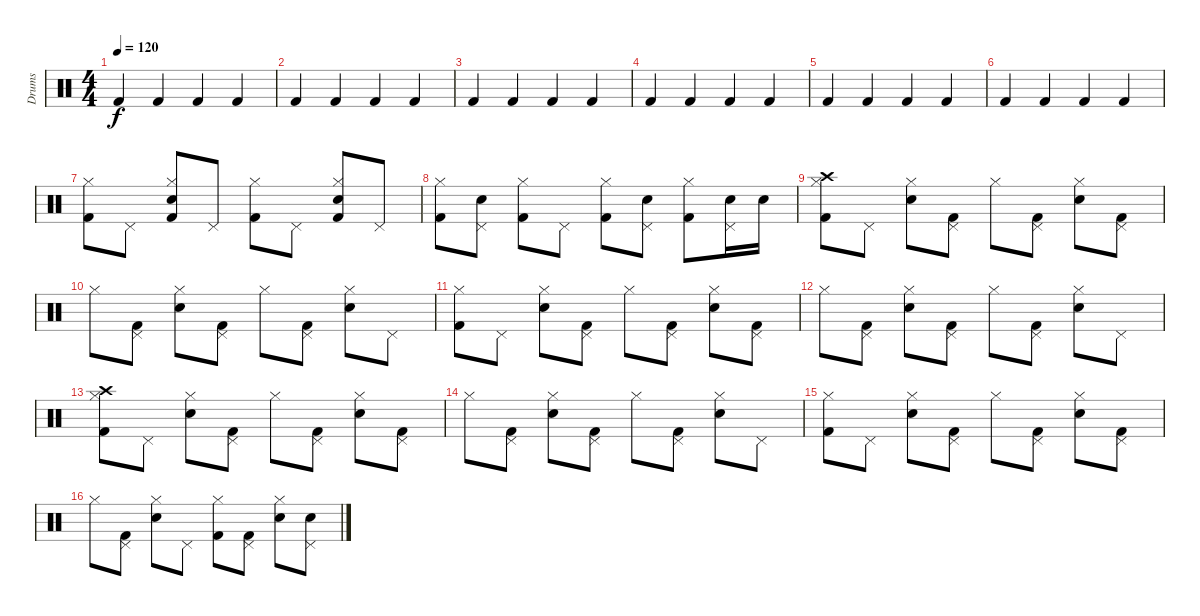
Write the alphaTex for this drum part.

\track ("Drums" "Drums") {instrument percussion}
\staff {score}
\articulation defaults
\ts (4 4)
\tempo 120
\clef neutral
\ks c "Kick (hit) 2".4{dy f} "Kick (hit) 2".4 "Kick (hit) 2".4 "Kick (hit) 2".4
|
"Kick (hit) 2".4 "Kick (hit) 2".4 "Kick (hit) 2".4 "Kick (hit) 2".4 |
"Kick (hit) 2".4 "Kick (hit) 2".4 "Kick (hit) 2".4 "Kick (hit) 2".4 |
"Kick (hit) 2".4 "Kick (hit) 2".4 "Kick (hit) 2".4 "Kick (hit) 2".4 |
"Kick (hit) 2".4 "Kick (hit) 2".4 "Kick (hit) 2".4 "Kick (hit) 2".4 |
"Kick (hit) 2".4 "Kick (hit) 2".4 "Kick (hit) 2".4 "Kick (hit) 2".4 |
("Kick (hit) 2" "Hi-Hat (closed)").8 "Pedal Hi-Hat (hit)".8 ("Kick (hit) 2" "Electric Snare (hit)" "Hi-Hat (closed)").8 "Pedal Hi-Hat (hit)".8 ("Kick (hit) 2" "Hi-Hat (closed)").8 "Pedal Hi-Hat (hit)".8 ("Kick (hit) 2" "Electric Snare (hit)" "Hi-Hat (closed)").8 "Pedal Hi-Hat (hit)".8 |
("Kick (hit) 2" "Hi-Hat (closed)").8 ("Electric Snare (hit)" "Pedal Hi-Hat (hit)").8 ("Kick (hit) 2" "Hi-Hat (closed)").8 "Pedal Hi-Hat (hit)".8 ("Kick (hit) 2" "Hi-Hat (closed)").8 ("Electric Snare (hit)" "Pedal Hi-Hat (hit)").8 ("Kick (hit) 2" "Hi-Hat (closed)").8 ("Electric Snare (hit)" "Pedal Hi-Hat (hit)").16 "Electric Snare (hit)".16 |
("Kick (hit) 2" "Hi-Hat (closed)" "Crash high (hit)").8 "Pedal Hi-Hat (hit)".8 ("Electric Snare (hit)" "Hi-Hat (closed)").8 ("Kick (hit) 2" "Pedal Hi-Hat (hit)").8 "Hi-Hat (closed)".8 ("Kick (hit) 2" "Pedal Hi-Hat (hit)").8 ("Electric Snare (hit)" "Hi-Hat (closed)").8 ("Kick (hit) 2" "Pedal Hi-Hat (hit)").8 |
"Hi-Hat (closed)".8 ("Kick (hit) 2" "Pedal Hi-Hat (hit)").8 ("Electric Snare (hit)" "Hi-Hat (closed)").8 ("Kick (hit) 2" "Pedal Hi-Hat (hit)").8 "Hi-Hat (closed)".8 ("Kick (hit) 2" "Pedal Hi-Hat (hit)").8 ("Electric Snare (hit)" "Hi-Hat (closed)").8 "Pedal Hi-Hat (hit)".8 |
("Kick (hit) 2" "Hi-Hat (closed)").8 "Pedal Hi-Hat (hit)".8 ("Electric Snare (hit)" "Hi-Hat (closed)").8 ("Kick (hit) 2" "Pedal Hi-Hat (hit)").8 "Hi-Hat (closed)".8 ("Kick (hit) 2" "Pedal Hi-Hat (hit)").8 ("Electric Snare (hit)" "Hi-Hat (closed)").8 ("Kick (hit) 2" "Pedal Hi-Hat (hit)").8 |
"Hi-Hat (closed)".8 ("Kick (hit) 2" "Pedal Hi-Hat (hit)").8 ("Electric Snare (hit)" "Hi-Hat (closed)").8 ("Kick (hit) 2" "Pedal Hi-Hat (hit)").8 "Hi-Hat (closed)".8 ("Kick (hit) 2" "Pedal Hi-Hat (hit)").8 ("Electric Snare (hit)" "Hi-Hat (closed)").8 "Pedal Hi-Hat (hit)".8 |
("Kick (hit) 2" "Hi-Hat (closed)" "Crash high (hit)").8 "Pedal Hi-Hat (hit)".8 ("Electric Snare (hit)" "Hi-Hat (closed)").8 ("Kick (hit) 2" "Pedal Hi-Hat (hit)").8 "Hi-Hat (closed)".8 ("Kick (hit) 2" "Pedal Hi-Hat (hit)").8 ("Electric Snare (hit)" "Hi-Hat (closed)").8 ("Kick (hit) 2" "Pedal Hi-Hat (hit)").8 |
"Hi-Hat (closed)".8 ("Kick (hit) 2" "Pedal Hi-Hat (hit)").8 ("Electric Snare (hit)" "Hi-Hat (closed)").8 ("Kick (hit) 2" "Pedal Hi-Hat (hit)").8 "Hi-Hat (closed)".8 ("Kick (hit) 2" "Pedal Hi-Hat (hit)").8 ("Electric Snare (hit)" "Hi-Hat (closed)").8 "Pedal Hi-Hat (hit)".8 |
("Kick (hit) 2" "Hi-Hat (closed)").8 "Pedal Hi-Hat (hit)".8 ("Electric Snare (hit)" "Hi-Hat (closed)").8 ("Kick (hit) 2" "Pedal Hi-Hat (hit)").8 "Hi-Hat (closed)".8 ("Kick (hit) 2" "Pedal Hi-Hat (hit)").8 ("Electric Snare (hit)" "Hi-Hat (closed)").8 ("Kick (hit) 2" "Pedal Hi-Hat (hit)").8 |
"Hi-Hat (closed)".8 ("Kick (hit) 2" "Pedal Hi-Hat (hit)").8 ("Electric Snare (hit)" "Hi-Hat (closed)").8 "Pedal Hi-Hat (hit)".8 ("Kick (hit) 2" "Hi-Hat (closed)").8 ("Kick (hit) 2" "Pedal Hi-Hat (hit)").8 ("Electric Snare (hit)" "Hi-Hat (closed)").8 ("Electric Snare (hit)" "Pedal Hi-Hat (hit)").8
